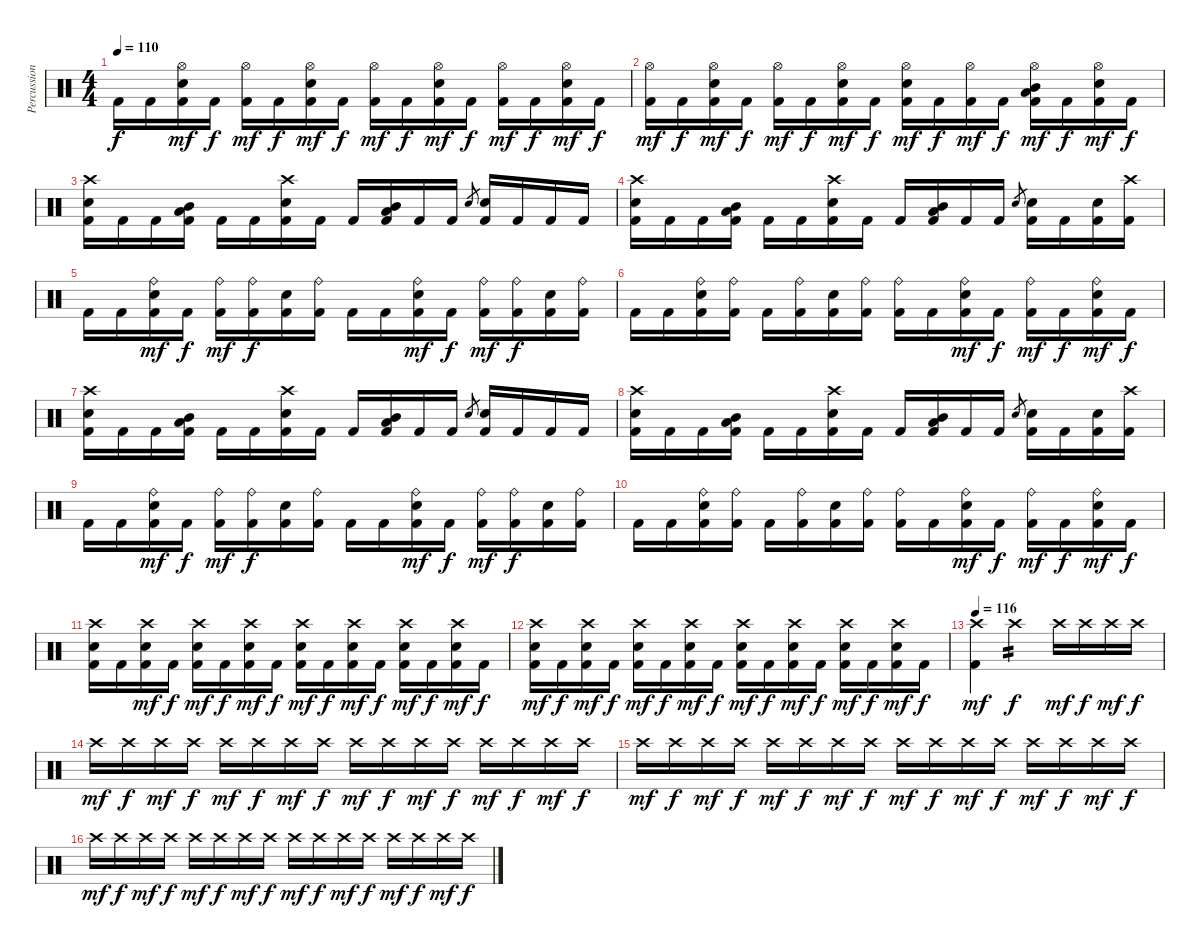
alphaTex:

\track ("Percussion (Moose)" "Percussion") {instrument percussion}
\staff {score}
\articulation defaults
\ts (4 4)
\tempo 110
\clef neutral
\ks c "Kick (hit) 2".16{dy f} "Kick (hit) 2".16
("Kick (hit) 2" "Snare (hit) 2" "Hi-Hat (open)").16{dy mf} "Kick (hit) 2".16{dy f} ("Kick (hit) 2" "Hi-Hat (open)").16{dy mf} "Kick (hit) 2".16{dy f} ("Kick (hit) 2" "Snare (hit) 2" "Hi-Hat (open)").16{dy mf} "Kick (hit) 2".16{dy f} ("Kick (hit) 2" "Hi-Hat (open)").16{dy mf} "Kick (hit) 2".16{dy f} ("Kick (hit) 2" "Snare (hit) 2" "Hi-Hat (open)").16{dy mf} "Kick (hit) 2".16{dy f} ("Kick (hit) 2" "Hi-Hat (open)").16{dy mf} "Kick (hit) 2".16{dy f} ("Kick (hit) 2" "Snare (hit) 2" "Hi-Hat (open)").16{dy mf} "Kick (hit) 2".16{dy f} |
("Kick (hit) 2" "Hi-Hat (open)").16{dy mf} "Kick (hit) 2".16{dy f} ("Kick (hit) 2" "Snare (hit) 2" "Hi-Hat (open)").16{dy mf} "Kick (hit) 2".16{dy f} ("Kick (hit) 2" "Hi-Hat (open)").16{dy mf} "Kick (hit) 2".16{dy f} ("Kick (hit) 2" "Snare (hit) 2" "Hi-Hat (open)").16{dy mf} "Kick (hit) 2".16{dy f} ("Kick (hit) 2" "Snare (hit) 2" "Hi-Hat (open)").16{dy mf} "Kick (hit) 2".16{dy f} ("Kick (hit) 2" "Hi-Hat (open)").16{dy mf} "Kick (hit) 2".16{dy f} ("Kick (hit) 2" "Mid Tom (hit)" "Low Tom (hit)" "Hi-Hat (open)").16{dy mf} "Kick (hit) 2".16{dy f} ("Kick (hit) 2" "Snare (hit) 2" "Hi-Hat (open)").16{dy mf} "Kick (hit) 2".16{dy f} |
("Kick (hit) 2" "Snare (hit) 2" "Crash high (hit)").16 "Kick (hit) 2".16 "Kick (hit) 2".16 ("Kick (hit) 2" "Mid Tom (hit)" "Low Tom (hit)").16 "Kick (hit) 2".16 "Kick (hit) 2".16 ("Kick (hit) 2" "Snare (hit) 2" "Crash high (hit)").16 "Kick (hit) 2".16 "Kick (hit) 2".16 ("Kick (hit) 2" "Mid Tom (hit)" "Low Tom (hit)").16 "Kick (hit) 2".16 "Kick (hit) 2".16 "Snare (hit) 2".8{gr} ("Kick (hit) 2" "Snare (hit) 2").16 "Kick (hit) 2".16 "Kick (hit) 2".16 "Kick (hit) 2".16 |
("Kick (hit) 2" "Snare (hit) 2" "Crash high (hit)").16 "Kick (hit) 2".16 "Kick (hit) 2".16 ("Kick (hit) 2" "Mid Tom (hit)" "Low Tom (hit)").16 "Kick (hit) 2".16 "Kick (hit) 2".16 ("Kick (hit) 2" "Snare (hit) 2" "Crash high (hit)").16 "Kick (hit) 2".16 "Kick (hit) 2".16 ("Kick (hit) 2" "Mid Tom (hit)" "Low Tom (hit)").16 "Kick (hit) 2".16 "Kick (hit) 2".16 "Snare (hit) 2".8{gr} ("Kick (hit) 2" "Snare (hit) 2").16 "Kick (hit) 2".16 ("Kick (hit) 2" "Snare (hit) 2").16 ("Kick (hit) 2" "Crash high (hit)").16 |
"Kick (hit) 2".16 "Kick (hit) 2".16 ("Kick (hit) 2" "Snare (hit) 2" "Ride (bell)").16{dy mf} "Kick (hit) 2".16{dy f} ("Kick (hit) 2" "Ride (bell)").16{dy mf} ("Kick (hit) 2" "Ride (bell)").16{dy f} ("Kick (hit) 2" "Snare (hit) 2").16 ("Kick (hit) 2" "Ride (bell)").16 "Kick (hit) 2".16 "Kick (hit) 2".16 ("Kick (hit) 2" "Snare (hit) 2" "Ride (bell)").16{dy mf} "Kick (hit) 2".16{dy f} ("Kick (hit) 2" "Ride (bell)").16{dy mf} ("Kick (hit) 2" "Ride (bell)").16{dy f} ("Kick (hit) 2" "Snare (hit) 2").16 ("Kick (hit) 2" "Ride (bell)").16 |
"Kick (hit) 2".16 "Kick (hit) 2".16 ("Kick (hit) 2" "Snare (hit) 2" "Ride (bell)").16 ("Kick (hit) 2" "Ride (bell)").16 "Kick (hit) 2".16 ("Kick (hit) 2" "Ride (bell)").16 ("Kick (hit) 2" "Snare (hit) 2").16 ("Kick (hit) 2" "Ride (bell)").16 ("Kick (hit) 2" "Ride (bell)").16 "Kick (hit) 2".16 ("Kick (hit) 2" "Snare (hit) 2" "Ride (bell)").16{dy mf} "Kick (hit) 2".16{dy f} ("Kick (hit) 2" "Ride (bell)").16{dy mf} "Kick (hit) 2".16{dy f} ("Kick (hit) 2" "Snare (hit) 2" "Ride (bell)").16{dy mf} "Kick (hit) 2".16{dy f} |
("Kick (hit) 2" "Snare (hit) 2" "Crash high (hit)").16 "Kick (hit) 2".16 "Kick (hit) 2".16 ("Kick (hit) 2" "Mid Tom (hit)" "Low Tom (hit)").16 "Kick (hit) 2".16 "Kick (hit) 2".16 ("Kick (hit) 2" "Snare (hit) 2" "Crash high (hit)").16 "Kick (hit) 2".16 "Kick (hit) 2".16 ("Kick (hit) 2" "Mid Tom (hit)" "Low Tom (hit)").16 "Kick (hit) 2".16 "Kick (hit) 2".16 "Snare (hit) 2".8{gr} ("Kick (hit) 2" "Snare (hit) 2").16 "Kick (hit) 2".16 "Kick (hit) 2".16 "Kick (hit) 2".16 |
("Kick (hit) 2" "Snare (hit) 2" "Crash high (hit)").16 "Kick (hit) 2".16 "Kick (hit) 2".16 ("Kick (hit) 2" "Mid Tom (hit)" "Low Tom (hit)").16 "Kick (hit) 2".16 "Kick (hit) 2".16 ("Kick (hit) 2" "Snare (hit) 2" "Crash high (hit)").16 "Kick (hit) 2".16 "Kick (hit) 2".16 ("Kick (hit) 2" "Mid Tom (hit)" "Low Tom (hit)").16 "Kick (hit) 2".16 "Kick (hit) 2".16 "Snare (hit) 2".8{gr} ("Kick (hit) 2" "Snare (hit) 2").16 "Kick (hit) 2".16 ("Kick (hit) 2" "Snare (hit) 2").16 ("Kick (hit) 2" "Crash high (hit)").16 |
"Kick (hit) 2".16 "Kick (hit) 2".16 ("Kick (hit) 2" "Snare (hit) 2" "Ride (bell)").16{dy mf} "Kick (hit) 2".16{dy f} ("Kick (hit) 2" "Ride (bell)").16{dy mf} ("Kick (hit) 2" "Ride (bell)").16{dy f} ("Kick (hit) 2" "Snare (hit) 2").16 ("Kick (hit) 2" "Ride (bell)").16 "Kick (hit) 2".16 "Kick (hit) 2".16 ("Kick (hit) 2" "Snare (hit) 2" "Ride (bell)").16{dy mf} "Kick (hit) 2".16{dy f} ("Kick (hit) 2" "Ride (bell)").16{dy mf} ("Kick (hit) 2" "Ride (bell)").16{dy f} ("Kick (hit) 2" "Snare (hit) 2").16 ("Kick (hit) 2" "Ride (bell)").16 |
"Kick (hit) 2".16 "Kick (hit) 2".16 ("Kick (hit) 2" "Snare (hit) 2" "Ride (bell)").16 ("Kick (hit) 2" "Ride (bell)").16 "Kick (hit) 2".16 ("Kick (hit) 2" "Ride (bell)").16 ("Kick (hit) 2" "Snare (hit) 2").16 ("Kick (hit) 2" "Ride (bell)").16 ("Kick (hit) 2" "Ride (bell)").16 "Kick (hit) 2".16 ("Kick (hit) 2" "Snare (hit) 2" "Ride (bell)").16{dy mf} "Kick (hit) 2".16{dy f} ("Kick (hit) 2" "Ride (bell)").16{dy mf} "Kick (hit) 2".16{dy f} ("Kick (hit) 2" "Snare (hit) 2" "Ride (bell)").16{dy mf} "Kick (hit) 2".16{dy f} |
("Kick (hit) 2" "Snare (hit) 2" "Crash high (hit)").16 "Kick (hit) 2".16 ("Kick (hit) 2" "Snare (hit) 2" "Crash high (hit)").16{dy mf} "Kick (hit) 2".16{dy f} ("Kick (hit) 2" "Snare (hit) 2" "Crash high (hit)").16{dy mf} "Kick (hit) 2".16{dy f} ("Kick (hit) 2" "Snare (hit) 2" "Crash high (hit)").16{dy mf} "Kick (hit) 2".16{dy f} ("Kick (hit) 2" "Snare (hit) 2" "Crash high (hit)").16{dy mf} "Kick (hit) 2".16{dy f} ("Kick (hit) 2" "Snare (hit) 2" "Crash high (hit)").16{dy mf} "Kick (hit) 2".16{dy f} ("Kick (hit) 2" "Snare (hit) 2" "Crash high (hit)").16{dy mf} "Kick (hit) 2".16{dy f} ("Kick (hit) 2" "Snare (hit) 2" "Crash high (hit)").16{dy mf} "Kick (hit) 2".16{dy f} |
("Kick (hit) 2" "Snare (hit) 2" "Crash high (hit)").16{dy mf} "Kick (hit) 2".16{dy f} ("Kick (hit) 2" "Snare (hit) 2" "Crash high (hit)").16{dy mf} "Kick (hit) 2".16{dy f} ("Kick (hit) 2" "Snare (hit) 2" "Crash high (hit)").16{dy mf} "Kick (hit) 2".16{dy f} ("Kick (hit) 2" "Snare (hit) 2" "Crash high (hit)").16{dy mf} "Kick (hit) 2".16{dy f} ("Kick (hit) 2" "Snare (hit) 2" "Crash high (hit)").16{dy mf} "Kick (hit) 2".16{dy f} ("Kick (hit) 2" "Snare (hit) 2" "Crash high (hit)").16{dy mf} "Kick (hit) 2".16{dy f} ("Kick (hit) 2" "Snare (hit) 2" "Crash high (hit)").16{dy mf} "Kick (hit) 2".16{dy f} ("Kick (hit) 2" "Snare (hit) 2" "Crash high (hit)").16{dy mf} "Kick (hit) 2".16{dy f} |
\tempo 116
("Kick (hit) 2" "Crash high (hit)").4{dy mf volume 12} "Crash high (hit)".2{tp 2 dy f} "Crash high (hit)".16{dy mf} "Crash high (hit)".16{dy f} "Crash high (hit)".16{dy mf} "Crash high (hit)".16{dy f} |
"Crash high (hit)".16{dy mf} "Crash high (hit)".16{dy f} "Crash high (hit)".16{dy mf} "Crash high (hit)".16{dy f} "Crash high (hit)".16{dy mf} "Crash high (hit)".16{dy f} "Crash high (hit)".16{dy mf} "Crash high (hit)".16{dy f} "Crash high (hit)".16{dy mf} "Crash high (hit)".16{dy f} "Crash high (hit)".16{dy mf} "Crash high (hit)".16{dy f} "Crash high (hit)".16{dy mf} "Crash high (hit)".16{dy f} "Crash high (hit)".16{dy mf} "Crash high (hit)".16{dy f} |
"Crash high (hit)".16{dy mf} "Crash high (hit)".16{dy f} "Crash high (hit)".16{dy mf} "Crash high (hit)".16{dy f} "Crash high (hit)".16{dy mf} "Crash high (hit)".16{dy f} "Crash high (hit)".16{dy mf} "Crash high (hit)".16{dy f} "Crash high (hit)".16{dy mf} "Crash high (hit)".16{dy f} "Crash high (hit)".16{dy mf} "Crash high (hit)".16{dy f} "Crash high (hit)".16{dy mf} "Crash high (hit)".16{dy f} "Crash high (hit)".16{dy mf} "Crash high (hit)".16{dy f} |
"Crash high (hit)".16{dy mf} "Crash high (hit)".16{dy f} "Crash high (hit)".16{dy mf} "Crash high (hit)".16{dy f} "Crash high (hit)".16{dy mf} "Crash high (hit)".16{dy f} "Crash high (hit)".16{dy mf} "Crash high (hit)".16{dy f} "Crash high (hit)".16{dy mf} "Crash high (hit)".16{dy f} "Crash high (hit)".16{dy mf} "Crash high (hit)".16{dy f} "Crash high (hit)".16{dy mf} "Crash high (hit)".16{dy f} "Crash high (hit)".16{dy mf} "Crash high (hit)".16{dy f}
